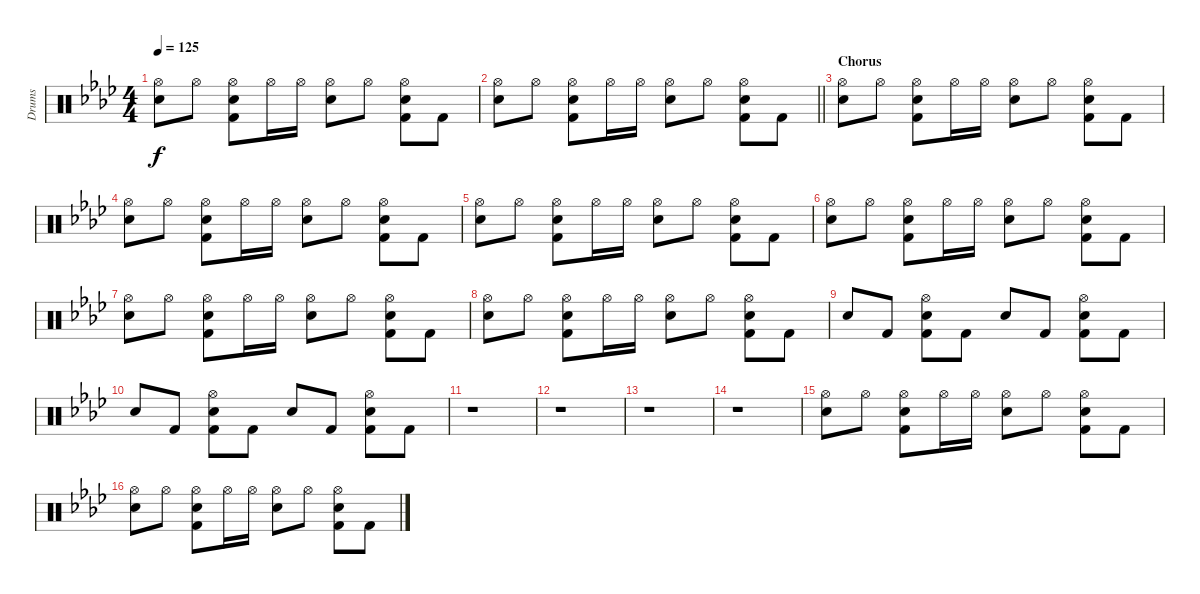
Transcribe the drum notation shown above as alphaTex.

\track ("Drums" "Drums") {instrument percussion}
\staff {score}
\articulation defaults
\ts (4 4)
\tempo 125
\clef neutral
\ks ab
("Hi-Hat (open)" "Electric Snare (hit)").8{dy f} "Hi-Hat (open)".8 ("Hi-Hat (open)" "Electric Snare (hit)" "Kick (hit) 2").8 "Hi-Hat (open)".16 "Hi-Hat (open)".16 ("Hi-Hat (open)" "Electric Snare (hit)").8 "Hi-Hat (open)".8 ("Hi-Hat (open)" "Electric Snare (hit)" "Kick (hit) 2").8 "Kick (hit) 2".8 |
\barLineRight lightlight
("Hi-Hat (open)" "Electric Snare (hit)").8 "Hi-Hat (open)".8 ("Hi-Hat (open)" "Electric Snare (hit)" "Kick (hit) 2").8 "Hi-Hat (open)".16 "Hi-Hat (open)".16 ("Hi-Hat (open)" "Electric Snare (hit)").8 "Hi-Hat (open)".8 ("Hi-Hat (open)" "Electric Snare (hit)" "Kick (hit) 2").8 "Kick (hit) 2".8 |
\section ("" "Chorus")
("Hi-Hat (open)" "Electric Snare (hit)").8 "Hi-Hat (open)".8 ("Hi-Hat (open)" "Electric Snare (hit)" "Kick (hit) 2").8 "Hi-Hat (open)".16 "Hi-Hat (open)".16 ("Hi-Hat (open)" "Electric Snare (hit)").8 "Hi-Hat (open)".8 ("Hi-Hat (open)" "Electric Snare (hit)" "Kick (hit) 2").8 "Kick (hit) 2".8 |
("Hi-Hat (open)" "Electric Snare (hit)").8 "Hi-Hat (open)".8 ("Hi-Hat (open)" "Electric Snare (hit)" "Kick (hit) 2").8 "Hi-Hat (open)".16 "Hi-Hat (open)".16 ("Hi-Hat (open)" "Electric Snare (hit)").8 "Hi-Hat (open)".8 ("Hi-Hat (open)" "Electric Snare (hit)" "Kick (hit) 2").8 "Kick (hit) 2".8 |
("Hi-Hat (open)" "Electric Snare (hit)").8 "Hi-Hat (open)".8 ("Hi-Hat (open)" "Electric Snare (hit)" "Kick (hit) 2").8 "Hi-Hat (open)".16 "Hi-Hat (open)".16 ("Hi-Hat (open)" "Electric Snare (hit)").8 "Hi-Hat (open)".8 ("Hi-Hat (open)" "Electric Snare (hit)" "Kick (hit) 2").8 "Kick (hit) 2".8 |
("Hi-Hat (open)" "Electric Snare (hit)").8 "Hi-Hat (open)".8 ("Hi-Hat (open)" "Electric Snare (hit)" "Kick (hit) 2").8 "Hi-Hat (open)".16 "Hi-Hat (open)".16 ("Hi-Hat (open)" "Electric Snare (hit)").8 "Hi-Hat (open)".8 ("Hi-Hat (open)" "Electric Snare (hit)" "Kick (hit) 2").8 "Kick (hit) 2".8 |
("Hi-Hat (open)" "Electric Snare (hit)").8 "Hi-Hat (open)".8 ("Hi-Hat (open)" "Electric Snare (hit)" "Kick (hit) 2").8 "Hi-Hat (open)".16 "Hi-Hat (open)".16 ("Hi-Hat (open)" "Electric Snare (hit)").8 "Hi-Hat (open)".8 ("Hi-Hat (open)" "Electric Snare (hit)" "Kick (hit) 2").8 "Kick (hit) 2".8 |
("Hi-Hat (open)" "Electric Snare (hit)").8 "Hi-Hat (open)".8 ("Hi-Hat (open)" "Electric Snare (hit)" "Kick (hit) 2").8 "Hi-Hat (open)".16 "Hi-Hat (open)".16 ("Hi-Hat (open)" "Electric Snare (hit)").8 "Hi-Hat (open)".8 ("Hi-Hat (open)" "Electric Snare (hit)" "Kick (hit) 2").8 "Kick (hit) 2".8 |
"Electric Snare (hit)".8 "Kick (hit) 2".8 ("Hi-Hat (open)" "Electric Snare (hit)" "Kick (hit) 2").8 "Kick (hit) 2".8 "Electric Snare (hit)".8 "Kick (hit) 2".8 ("Hi-Hat (open)" "Electric Snare (hit)" "Kick (hit) 2").8 "Kick (hit) 2".8 |
"Electric Snare (hit)".8 "Kick (hit) 2".8 ("Hi-Hat (open)" "Electric Snare (hit)" "Kick (hit) 2").8 "Kick (hit) 2".8 "Electric Snare (hit)".8 "Kick (hit) 2".8 ("Hi-Hat (open)" "Electric Snare (hit)" "Kick (hit) 2").8 "Kick (hit) 2".8 |
r.1 |
r.1 |
r.1 |
r.1 |
("Hi-Hat (open)" "Electric Snare (hit)").8 "Hi-Hat (open)".8 ("Hi-Hat (open)" "Electric Snare (hit)" "Kick (hit) 2").8 "Hi-Hat (open)".16 "Hi-Hat (open)".16 ("Hi-Hat (open)" "Electric Snare (hit)").8 "Hi-Hat (open)".8 ("Hi-Hat (open)" "Electric Snare (hit)" "Kick (hit) 2").8 "Kick (hit) 2".8 |
("Hi-Hat (open)" "Electric Snare (hit)").8 "Hi-Hat (open)".8 ("Hi-Hat (open)" "Electric Snare (hit)" "Kick (hit) 2").8 "Hi-Hat (open)".16 "Hi-Hat (open)".16 ("Hi-Hat (open)" "Electric Snare (hit)").8 "Hi-Hat (open)".8 ("Hi-Hat (open)" "Electric Snare (hit)" "Kick (hit) 2").8 "Kick (hit) 2".8
